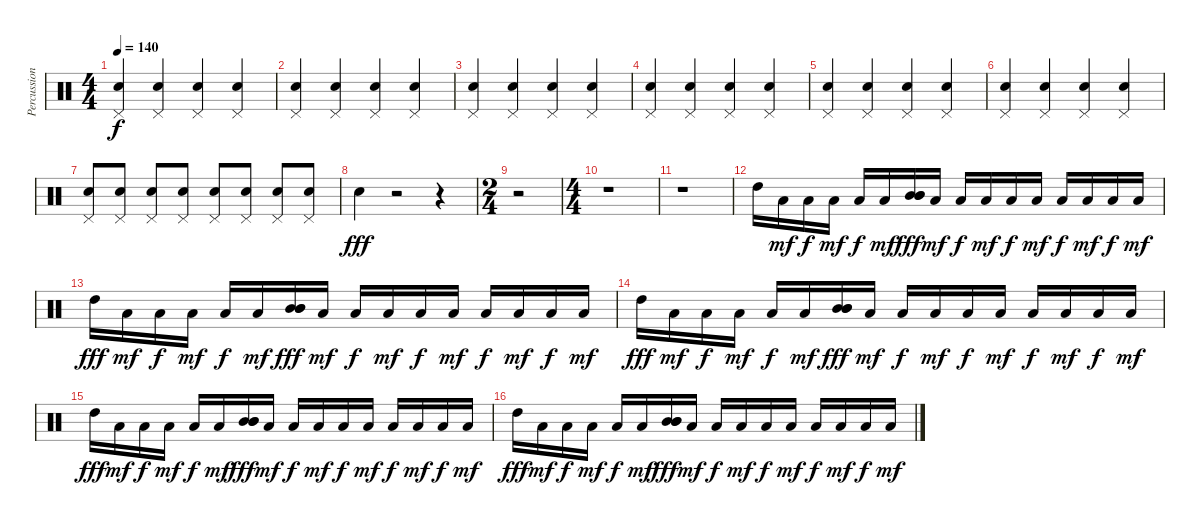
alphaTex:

\track ("Percussions" "Percussion") {instrument percussion}
\staff {score}
\articulation defaults
\ts (4 4)
\tempo 140
\clef neutral
\ks c
("Pedal Hi-Hat (hit)" "Electric Snare (hit)").4{dy f} ("Pedal Hi-Hat (hit)" "Electric Snare (hit)").4 ("Pedal Hi-Hat (hit)" "Electric Snare (hit)").4 ("Pedal Hi-Hat (hit)" "Electric Snare (hit)").4 |
("Pedal Hi-Hat (hit)" "Electric Snare (hit)").4 ("Pedal Hi-Hat (hit)" "Electric Snare (hit)").4 ("Pedal Hi-Hat (hit)" "Electric Snare (hit)").4 ("Pedal Hi-Hat (hit)" "Electric Snare (hit)").4 |
("Pedal Hi-Hat (hit)" "Electric Snare (hit)").4 ("Pedal Hi-Hat (hit)" "Electric Snare (hit)").4 ("Pedal Hi-Hat (hit)" "Electric Snare (hit)").4 ("Pedal Hi-Hat (hit)" "Electric Snare (hit)").4 |
("Pedal Hi-Hat (hit)" "Electric Snare (hit)").4 ("Pedal Hi-Hat (hit)" "Electric Snare (hit)").4 ("Pedal Hi-Hat (hit)" "Electric Snare (hit)").4 ("Pedal Hi-Hat (hit)" "Electric Snare (hit)").4 |
("Pedal Hi-Hat (hit)" "Electric Snare (hit)").4 ("Pedal Hi-Hat (hit)" "Electric Snare (hit)").4 ("Pedal Hi-Hat (hit)" "Electric Snare (hit)").4 ("Pedal Hi-Hat (hit)" "Electric Snare (hit)").4 |
("Pedal Hi-Hat (hit)" "Electric Snare (hit)").4 ("Pedal Hi-Hat (hit)" "Electric Snare (hit)").4 ("Pedal Hi-Hat (hit)" "Electric Snare (hit)").4 ("Pedal Hi-Hat (hit)" "Electric Snare (hit)").4 |
("Pedal Hi-Hat (hit)" "Electric Snare (hit)").8 ("Pedal Hi-Hat (hit)" "Electric Snare (hit)").8 ("Pedal Hi-Hat (hit)" "Electric Snare (hit)").8 ("Pedal Hi-Hat (hit)" "Electric Snare (hit)").8 ("Pedal Hi-Hat (hit)" "Electric Snare (hit)").8 ("Pedal Hi-Hat (hit)" "Electric Snare (hit)").8 ("Pedal Hi-Hat (hit)" "Electric Snare (hit)").8 ("Pedal Hi-Hat (hit)" "Electric Snare (hit)").8 |
"Electric Snare (hit)".4{dy fff} r.2 r.4 |
\ts (2 4)
r.2 |
\ts (4 4)
r.1 |
r.1 |
"High Tom (hit)".16 "Low Floor Tom (hit)".16{dy mf} "Low Floor Tom (hit)".16{dy f} "Low Floor Tom (hit)".16{dy mf} "Low Floor Tom (hit)".16{dy f} "Low Floor Tom (hit)".16{dy mf} ("Mid Tom (hit)" "Mid Tom (hit)" "Mid Tom (hit)").16{dy fff} "Low Floor Tom (hit)".16{dy mf} "Low Floor Tom (hit)".16{dy f} "Low Floor Tom (hit)".16{dy mf} "Low Floor Tom (hit)".16{dy f} "Low Floor Tom (hit)".16{dy mf} "Low Floor Tom (hit)".16{dy f} "Low Floor Tom (hit)".16{dy mf} "Low Floor Tom (hit)".16{dy f} "Low Floor Tom (hit)".16{dy mf} |
"High Tom (hit)".16{dy fff} "Low Floor Tom (hit)".16{dy mf} "Low Floor Tom (hit)".16{dy f} "Low Floor Tom (hit)".16{dy mf} "Low Floor Tom (hit)".16{dy f} "Low Floor Tom (hit)".16{dy mf} ("Mid Tom (hit)" "Mid Tom (hit)" "Mid Tom (hit)").16{dy fff} "Low Floor Tom (hit)".16{dy mf} "Low Floor Tom (hit)".16{dy f} "Low Floor Tom (hit)".16{dy mf} "Low Floor Tom (hit)".16{dy f} "Low Floor Tom (hit)".16{dy mf} "Low Floor Tom (hit)".16{dy f} "Low Floor Tom (hit)".16{dy mf} "Low Floor Tom (hit)".16{dy f} "Low Floor Tom (hit)".16{dy mf} |
"High Tom (hit)".16{dy fff} "Low Floor Tom (hit)".16{dy mf} "Low Floor Tom (hit)".16{dy f} "Low Floor Tom (hit)".16{dy mf} "Low Floor Tom (hit)".16{dy f} "Low Floor Tom (hit)".16{dy mf} ("Mid Tom (hit)" "Mid Tom (hit)" "Mid Tom (hit)").16{dy fff} "Low Floor Tom (hit)".16{dy mf} "Low Floor Tom (hit)".16{dy f} "Low Floor Tom (hit)".16{dy mf} "Low Floor Tom (hit)".16{dy f} "Low Floor Tom (hit)".16{dy mf} "Low Floor Tom (hit)".16{dy f} "Low Floor Tom (hit)".16{dy mf} "Low Floor Tom (hit)".16{dy f} "Low Floor Tom (hit)".16{dy mf} |
"High Tom (hit)".16{dy fff} "Low Floor Tom (hit)".16{dy mf} "Low Floor Tom (hit)".16{dy f} "Low Floor Tom (hit)".16{dy mf} "Low Floor Tom (hit)".16{dy f} "Low Floor Tom (hit)".16{dy mf} ("Mid Tom (hit)" "Mid Tom (hit)" "Mid Tom (hit)").16{dy fff} "Low Floor Tom (hit)".16{dy mf} "Low Floor Tom (hit)".16{dy f} "Low Floor Tom (hit)".16{dy mf} "Low Floor Tom (hit)".16{dy f} "Low Floor Tom (hit)".16{dy mf} "Low Floor Tom (hit)".16{dy f} "Low Floor Tom (hit)".16{dy mf} "Low Floor Tom (hit)".16{dy f} "Low Floor Tom (hit)".16{dy mf} |
"High Tom (hit)".16{dy fff} "Low Floor Tom (hit)".16{dy mf} "Low Floor Tom (hit)".16{dy f} "Low Floor Tom (hit)".16{dy mf} "Low Floor Tom (hit)".16{dy f} "Low Floor Tom (hit)".16{dy mf} ("Mid Tom (hit)" "Mid Tom (hit)" "Mid Tom (hit)").16{dy fff} "Low Floor Tom (hit)".16{dy mf} "Low Floor Tom (hit)".16{dy f} "Low Floor Tom (hit)".16{dy mf} "Low Floor Tom (hit)".16{dy f} "Low Floor Tom (hit)".16{dy mf} "Low Floor Tom (hit)".16{dy f} "Low Floor Tom (hit)".16{dy mf} "Low Floor Tom (hit)".16{dy f} "Low Floor Tom (hit)".16{dy mf}
